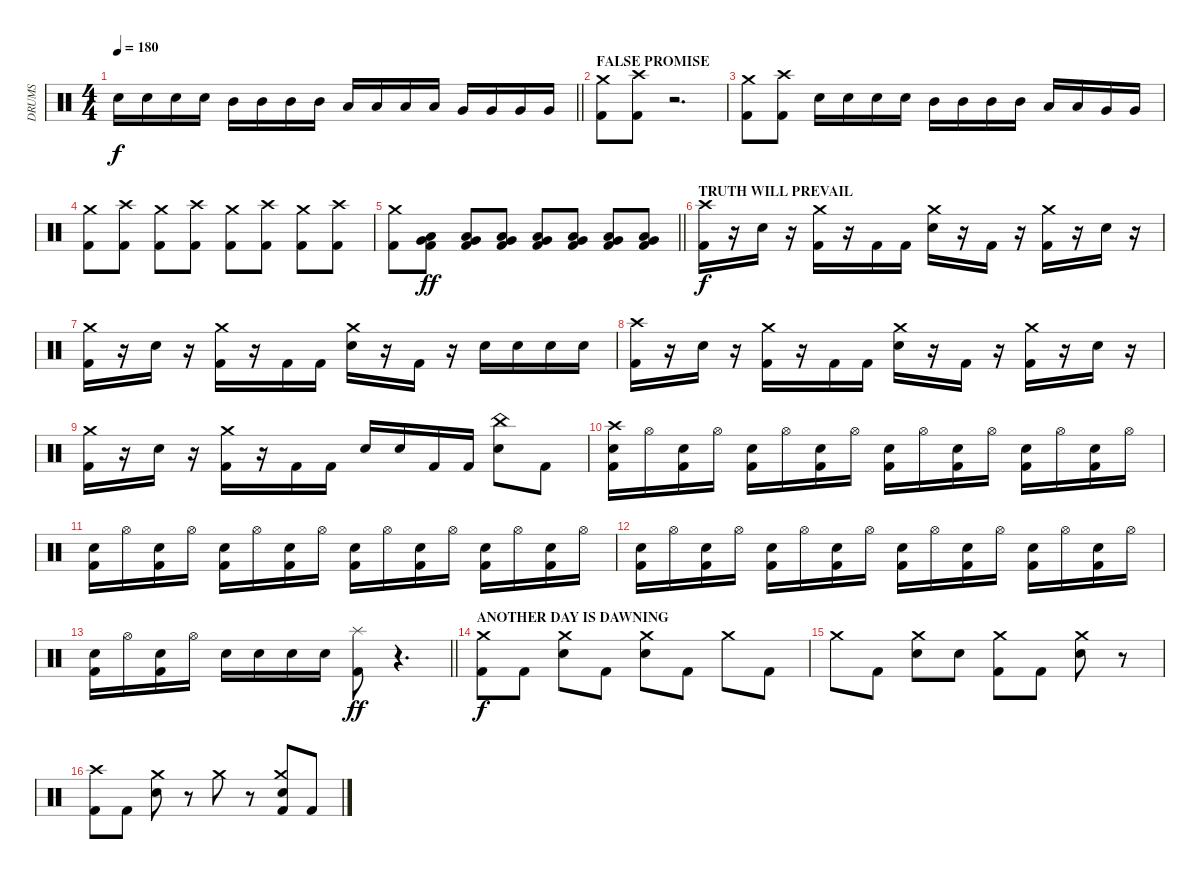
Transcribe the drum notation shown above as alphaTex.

\track ("DRUMS" "DRUMS") {instrument percussion}
\staff {score}
\articulation defaults
\ts (4 4)
\tempo 180
\clef neutral
\barLineRight lightlight
\ks c "Electric Snare (hit)".16{dy f} "Electric Snare (hit)".16 "Electric Snare (hit)".16 "Electric Snare (hit)".16 "Mid Tom (hit)".16 "Mid Tom (hit)".16 "Mid Tom (hit)".16 "Mid Tom (hit)".16 "Low Tom (hit)".16 "Low Tom (hit)".16 "Low Tom (hit)".16 "Low Tom (hit)".16 "Very Low Tom (hit)".16 "Very Low Tom (hit)".16 "Very Low Tom (hit)".16 "Very Low Tom (hit)".16
|
\section ("" "FALSE PROMISE")
("Crash medium (hit)" "Kick (hit) 2").8 ("Crash high (hit)" "Kick (hit) 2").8 r.2{d} |
("Crash medium (hit)" "Kick (hit) 2").8 ("Crash high (hit)" "Kick (hit) 2").8 "Electric Snare (hit)".16 "Electric Snare (hit)".16 "Electric Snare (hit)".16 "Electric Snare (hit)".16 "Mid Tom (hit)".16 "Mid Tom (hit)".16 "Mid Tom (hit)".16 "Mid Tom (hit)".16 "Low Tom (hit)".16 "Low Tom (hit)".16 "Very Low Tom (hit)".16 "Very Low Tom (hit)".16 |
("Crash medium (hit)" "Kick (hit) 2").8 ("Crash high (hit)" "Kick (hit) 2").8 ("Crash medium (hit)" "Kick (hit) 2").8 ("Crash high (hit)" "Kick (hit) 2").8 ("Crash medium (hit)" "Kick (hit) 2").8 ("Crash high (hit)" "Kick (hit) 2").8 ("Crash medium (hit)" "Kick (hit) 2").8 ("Crash high (hit)" "Kick (hit) 2").8 |
\barLineRight lightlight
("Crash medium (hit)" "Kick (hit) 2").8 ("Very Low Tom (hit)" "Low Tom (hit)" "Kick (hit) 2").8{dy ff} ("Very Low Tom (hit)" "Low Tom (hit)" "Kick (hit) 2").8 ("Very Low Tom (hit)" "Low Tom (hit)" "Kick (hit) 2").8 ("Very Low Tom (hit)" "Low Tom (hit)" "Kick (hit) 2").8 ("Very Low Tom (hit)" "Low Tom (hit)" "Kick (hit) 2").8 ("Very Low Tom (hit)" "Low Tom (hit)" "Kick (hit) 2").8 ("Very Low Tom (hit)" "Low Tom (hit)" "Kick (hit) 2").8 |
\section ("" "TRUTH WILL PREVAIL")
("Crash high (hit)" "Kick (hit) 2").16{dy f} r.16 "Electric Snare (hit)".16 r.16 ("Crash medium (hit)" "Kick (hit) 2").16 r.16 "Kick (hit) 2".16 "Kick (hit) 2".16 ("Crash medium (hit)" "Electric Snare (hit)").16 r.16 "Kick (hit) 2".16 r.16 ("Crash medium (hit)" "Kick (hit) 2").16 r.16 "Electric Snare (hit)".16 r.16 |
("Crash medium (hit)" "Kick (hit) 2").16 r.16 "Electric Snare (hit)".16 r.16 ("Crash medium (hit)" "Kick (hit) 2").16 r.16 "Kick (hit) 2".16 "Kick (hit) 2".16 ("Crash medium (hit)" "Electric Snare (hit)").16 r.16 "Kick (hit) 2".16 r.16 "Electric Snare (hit)".16 "Electric Snare (hit)".16 "Electric Snare (hit)".16 "Electric Snare (hit)".16 |
("Crash high (hit)" "Kick (hit) 2").16 r.16 "Electric Snare (hit)".16 r.16 ("Crash medium (hit)" "Kick (hit) 2").16 r.16 "Kick (hit) 2".16 "Kick (hit) 2".16 ("Crash medium (hit)" "Electric Snare (hit)").16 r.16 "Kick (hit) 2".16 r.16 ("Crash medium (hit)" "Kick (hit) 2").16 r.16 "Electric Snare (hit)".16 r.16 |
("Crash medium (hit)" "Kick (hit) 2").16 r.16 "Electric Snare (hit)".16 r.16 ("Crash medium (hit)" "Kick (hit) 2").16 r.16 "Kick (hit) 2".16 "Kick (hit) 2".16 "Electric Snare (hit)".16 "Electric Snare (hit)".16 "Kick (hit) 2".16 "Kick (hit) 2".16 ("China (hit)" "Electric Snare (hit)").8 "Kick (hit) 2".8 |
("Crash high (hit)" "Electric Snare (hit)" "Kick (hit) 2").16 "Hi-Hat (open)".16 ("Electric Snare (hit)" "Kick (hit) 2").16 "Hi-Hat (open)".16 ("Electric Snare (hit)" "Kick (hit) 2").16 "Hi-Hat (open)".16 ("Electric Snare (hit)" "Kick (hit) 2").16 "Hi-Hat (open)".16 ("Electric Snare (hit)" "Kick (hit) 2").16 "Hi-Hat (open)".16 ("Electric Snare (hit)" "Kick (hit) 2").16 "Hi-Hat (open)".16 ("Electric Snare (hit)" "Kick (hit) 2").16 "Hi-Hat (open)".16 ("Electric Snare (hit)" "Kick (hit) 2").16 "Hi-Hat (open)".16 |
("Electric Snare (hit)" "Kick (hit) 2").16 "Hi-Hat (open)".16 ("Electric Snare (hit)" "Kick (hit) 2").16 "Hi-Hat (open)".16 ("Electric Snare (hit)" "Kick (hit) 2").16 "Hi-Hat (open)".16 ("Electric Snare (hit)" "Kick (hit) 2").16 "Hi-Hat (open)".16 ("Electric Snare (hit)" "Kick (hit) 2").16 "Hi-Hat (open)".16 ("Electric Snare (hit)" "Kick (hit) 2").16 "Hi-Hat (open)".16 ("Electric Snare (hit)" "Kick (hit) 2").16 "Hi-Hat (open)".16 ("Electric Snare (hit)" "Kick (hit) 2").16 "Hi-Hat (open)".16 |
("Electric Snare (hit)" "Kick (hit) 2").16 "Hi-Hat (open)".16 ("Electric Snare (hit)" "Kick (hit) 2").16 "Hi-Hat (open)".16 ("Electric Snare (hit)" "Kick (hit) 2").16 "Hi-Hat (open)".16 ("Electric Snare (hit)" "Kick (hit) 2").16 "Hi-Hat (open)".16 ("Electric Snare (hit)" "Kick (hit) 2").16 "Hi-Hat (open)".16 ("Electric Snare (hit)" "Kick (hit) 2").16 "Hi-Hat (open)".16 ("Electric Snare (hit)" "Kick (hit) 2").16 "Hi-Hat (open)".16 ("Electric Snare (hit)" "Kick (hit) 2").16 "Hi-Hat (open)".16 |
\barLineRight lightlight
("Electric Snare (hit)" "Kick (hit) 2").16 "Hi-Hat (open)".16 ("Electric Snare (hit)" "Kick (hit) 2").16 "Hi-Hat (open)".16 "Electric Snare (hit)".16 "Electric Snare (hit)".16 "Electric Snare (hit)".16 "Electric Snare (hit)".16 ("Splash (hit)" "Kick (hit) 2").8{dy ff} r.4{d} |
\section ("" "ANOTHER DAY IS DAWNING")
("Crash medium (hit)" "Kick (hit) 2").8{dy f} "Kick (hit) 2".8 ("Crash medium (hit)" "Electric Snare (hit)").8 "Kick (hit) 2".8 ("Crash medium (hit)" "Electric Snare (hit)").8 "Kick (hit) 2".8 "Crash medium (hit)".8 "Kick (hit) 2".8 |
"Crash medium (hit)".8 "Kick (hit) 2".8 ("Crash medium (hit)" "Electric Snare (hit)").8 "Electric Snare (hit)".8 ("Crash medium (hit)" "Kick (hit) 2").8 "Kick (hit) 2".8 ("Crash medium (hit)" "Electric Snare (hit)").8 r.8 |
("Crash high (hit)" "Kick (hit) 2").8 "Kick (hit) 2".8 ("Crash medium (hit)" "Electric Snare (hit)").8 r.8 "Crash medium (hit)".8 r.8 ("Crash medium (hit)" "Electric Snare (hit)" "Kick (hit) 2").8 "Kick (hit) 2".8
